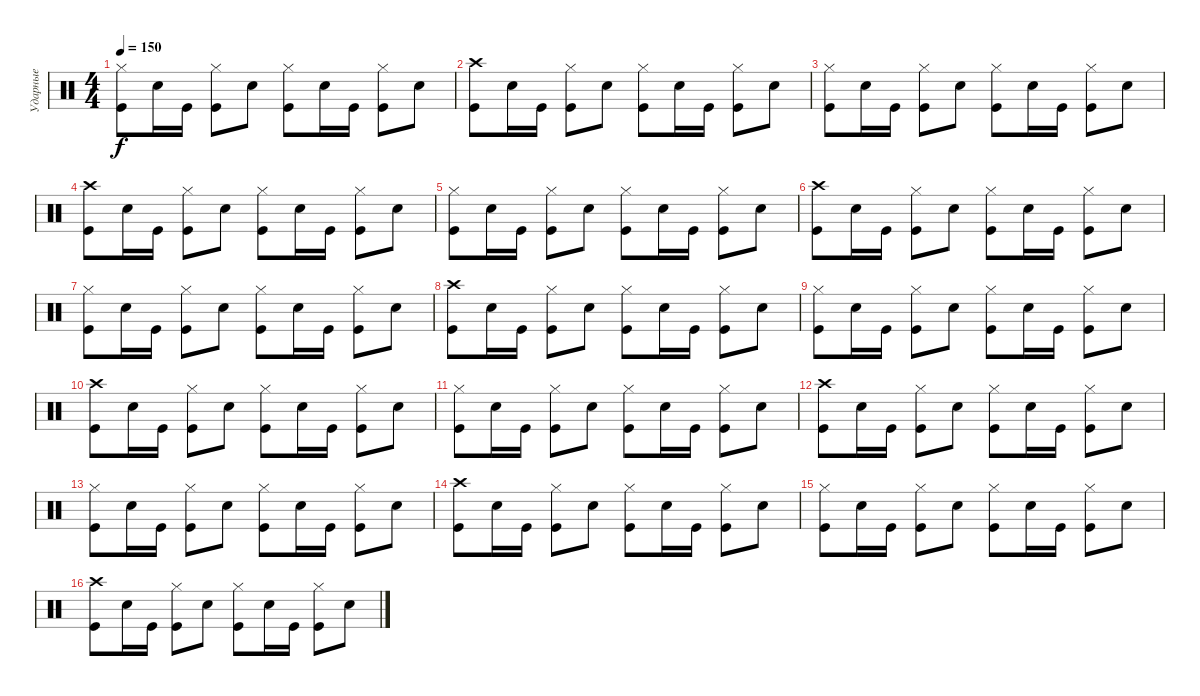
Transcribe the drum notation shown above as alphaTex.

\track ("Ударные" "Ударные") {instrument percussion}
\staff {score}
\articulation defaults
\ts (4 4)
\tempo 150
\clef neutral
\ks c
("Hi-Hat (closed)" "Kick (hit)").8{dy f} "Snare (hit) 2".16 "Kick (hit)".16 ("Hi-Hat (closed)" "Kick (hit)").8 "Snare (hit) 2".8 ("Hi-Hat (closed)" "Kick (hit)").8 "Snare (hit) 2".16 "Kick (hit)".16 ("Hi-Hat (closed)" "Kick (hit)").8 "Snare (hit) 2".8 |
("Crash high (hit)" "Kick (hit)").8 "Snare (hit) 2".16 "Kick (hit)".16 ("Hi-Hat (closed)" "Kick (hit)").8 "Snare (hit) 2".8 ("Hi-Hat (closed)" "Kick (hit)").8 "Snare (hit) 2".16 "Kick (hit)".16 ("Hi-Hat (closed)" "Kick (hit)").8 "Snare (hit) 2".8 |
("Hi-Hat (closed)" "Kick (hit)").8 "Snare (hit) 2".16 "Kick (hit)".16 ("Hi-Hat (closed)" "Kick (hit)").8 "Snare (hit) 2".8 ("Hi-Hat (closed)" "Kick (hit)").8 "Snare (hit) 2".16 "Kick (hit)".16 ("Hi-Hat (closed)" "Kick (hit)").8 "Snare (hit) 2".8 |
("Crash high (hit)" "Kick (hit)").8 "Snare (hit) 2".16 "Kick (hit)".16 ("Hi-Hat (closed)" "Kick (hit)").8 "Snare (hit) 2".8 ("Hi-Hat (closed)" "Kick (hit)").8 "Snare (hit) 2".16 "Kick (hit)".16 ("Hi-Hat (closed)" "Kick (hit)").8 "Snare (hit) 2".8 |
("Hi-Hat (closed)" "Kick (hit)").8 "Snare (hit) 2".16 "Kick (hit)".16 ("Hi-Hat (closed)" "Kick (hit)").8 "Snare (hit) 2".8 ("Hi-Hat (closed)" "Kick (hit)").8 "Snare (hit) 2".16 "Kick (hit)".16 ("Hi-Hat (closed)" "Kick (hit)").8 "Snare (hit) 2".8 |
("Crash high (hit)" "Kick (hit)").8 "Snare (hit) 2".16 "Kick (hit)".16 ("Hi-Hat (closed)" "Kick (hit)").8 "Snare (hit) 2".8 ("Hi-Hat (closed)" "Kick (hit)").8 "Snare (hit) 2".16 "Kick (hit)".16 ("Hi-Hat (closed)" "Kick (hit)").8 "Snare (hit) 2".8 |
("Hi-Hat (closed)" "Kick (hit)").8 "Snare (hit) 2".16 "Kick (hit)".16 ("Hi-Hat (closed)" "Kick (hit)").8 "Snare (hit) 2".8 ("Hi-Hat (closed)" "Kick (hit)").8 "Snare (hit) 2".16 "Kick (hit)".16 ("Hi-Hat (closed)" "Kick (hit)").8 "Snare (hit) 2".8 |
("Crash high (hit)" "Kick (hit)").8 "Snare (hit) 2".16 "Kick (hit)".16 ("Hi-Hat (closed)" "Kick (hit)").8 "Snare (hit) 2".8 ("Hi-Hat (closed)" "Kick (hit)").8 "Snare (hit) 2".16 "Kick (hit)".16 ("Hi-Hat (closed)" "Kick (hit)").8 "Snare (hit) 2".8 |
("Hi-Hat (closed)" "Kick (hit)").8 "Snare (hit) 2".16 "Kick (hit)".16 ("Hi-Hat (closed)" "Kick (hit)").8 "Snare (hit) 2".8 ("Hi-Hat (closed)" "Kick (hit)").8 "Snare (hit) 2".16 "Kick (hit)".16 ("Hi-Hat (closed)" "Kick (hit)").8 "Snare (hit) 2".8 |
("Crash high (hit)" "Kick (hit)").8 "Snare (hit) 2".16 "Kick (hit)".16 ("Hi-Hat (closed)" "Kick (hit)").8 "Snare (hit) 2".8 ("Hi-Hat (closed)" "Kick (hit)").8 "Snare (hit) 2".16 "Kick (hit)".16 ("Hi-Hat (closed)" "Kick (hit)").8 "Snare (hit) 2".8 |
("Hi-Hat (closed)" "Kick (hit)").8 "Snare (hit) 2".16 "Kick (hit)".16 ("Hi-Hat (closed)" "Kick (hit)").8 "Snare (hit) 2".8 ("Hi-Hat (closed)" "Kick (hit)").8 "Snare (hit) 2".16 "Kick (hit)".16 ("Hi-Hat (closed)" "Kick (hit)").8 "Snare (hit) 2".8 |
("Crash high (hit)" "Kick (hit)").8 "Snare (hit) 2".16 "Kick (hit)".16 ("Hi-Hat (closed)" "Kick (hit)").8 "Snare (hit) 2".8 ("Hi-Hat (closed)" "Kick (hit)").8 "Snare (hit) 2".16 "Kick (hit)".16 ("Hi-Hat (closed)" "Kick (hit)").8 "Snare (hit) 2".8 |
("Hi-Hat (closed)" "Kick (hit)").8 "Snare (hit) 2".16 "Kick (hit)".16 ("Hi-Hat (closed)" "Kick (hit)").8 "Snare (hit) 2".8 ("Hi-Hat (closed)" "Kick (hit)").8 "Snare (hit) 2".16 "Kick (hit)".16 ("Hi-Hat (closed)" "Kick (hit)").8 "Snare (hit) 2".8 |
("Crash high (hit)" "Kick (hit)").8 "Snare (hit) 2".16 "Kick (hit)".16 ("Hi-Hat (closed)" "Kick (hit)").8 "Snare (hit) 2".8 ("Hi-Hat (closed)" "Kick (hit)").8 "Snare (hit) 2".16 "Kick (hit)".16 ("Hi-Hat (closed)" "Kick (hit)").8 "Snare (hit) 2".8 |
("Hi-Hat (closed)" "Kick (hit)").8 "Snare (hit) 2".16 "Kick (hit)".16 ("Hi-Hat (closed)" "Kick (hit)").8 "Snare (hit) 2".8 ("Hi-Hat (closed)" "Kick (hit)").8 "Snare (hit) 2".16 "Kick (hit)".16 ("Hi-Hat (closed)" "Kick (hit)").8 "Snare (hit) 2".8 |
("Crash high (hit)" "Kick (hit)").8 "Snare (hit) 2".16 "Kick (hit)".16 ("Hi-Hat (closed)" "Kick (hit)").8 "Snare (hit) 2".8 ("Hi-Hat (closed)" "Kick (hit)").8 "Snare (hit) 2".16 "Kick (hit)".16 ("Hi-Hat (closed)" "Kick (hit)").8 "Snare (hit) 2".8
